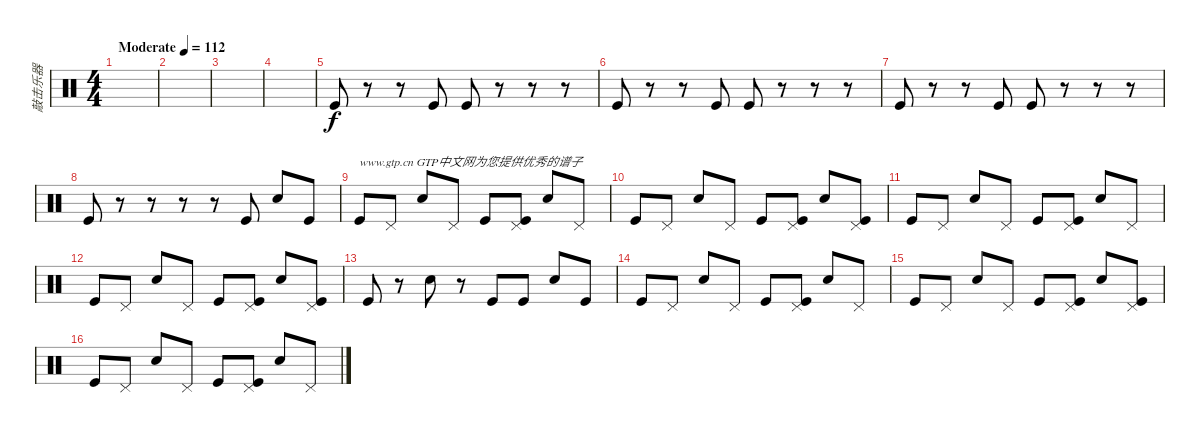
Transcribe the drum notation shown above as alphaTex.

\track ("敲击乐器" "敲击乐器") {instrument percussion}
\staff {score}
\articulation defaults
\ts (4 4)
\tempo (112 "Moderate")
\clef neutral
\ks c
|
|
|
|
"Kick (hit)".8 r.8 r.8 "Kick (hit)".8 "Kick (hit)".8 r.8 r.8 r.8 |
"Kick (hit)".8 r.8 r.8 "Kick (hit)".8 "Kick (hit)".8 r.8 r.8 r.8 |
"Kick (hit)".8 r.8 r.8 "Kick (hit)".8 "Kick (hit)".8 r.8 r.8 r.8 |
"Kick (hit)".8 r.8 r.8 r.8 r.8 "Kick (hit)".8 "Electric Snare (hit)".8 "Kick (hit)".8 |
"Kick (hit)".8{txt "www.gtp.cn GTP中文网为您提供优秀的谱子"} "Pedal Hi-Hat (hit)".8 "Electric Snare (hit)".8 "Pedal Hi-Hat (hit)".8 "Kick (hit)".8 ("Pedal Hi-Hat (hit)" "Kick (hit)").8 "Electric Snare (hit)".8 "Pedal Hi-Hat (hit)".8 |
"Kick (hit)".8 "Pedal Hi-Hat (hit)".8 "Electric Snare (hit)".8 "Pedal Hi-Hat (hit)".8 "Kick (hit)".8 ("Pedal Hi-Hat (hit)" "Kick (hit)").8 "Electric Snare (hit)".8 ("Pedal Hi-Hat (hit)" "Kick (hit)").8 |
"Kick (hit)".8 "Pedal Hi-Hat (hit)".8 "Electric Snare (hit)".8 "Pedal Hi-Hat (hit)".8 "Kick (hit)".8 ("Pedal Hi-Hat (hit)" "Kick (hit)").8 "Electric Snare (hit)".8 "Pedal Hi-Hat (hit)".8 |
"Kick (hit)".8 "Pedal Hi-Hat (hit)".8 "Electric Snare (hit)".8 "Pedal Hi-Hat (hit)".8 "Kick (hit)".8 ("Pedal Hi-Hat (hit)" "Kick (hit)").8 "Electric Snare (hit)".8 ("Pedal Hi-Hat (hit)" "Kick (hit)").8 |
"Kick (hit)".8 r.8 "Electric Snare (hit)".8 r.8 "Kick (hit)".8 "Kick (hit)".8 "Electric Snare (hit)".8 "Kick (hit)".8 |
"Kick (hit)".8 "Pedal Hi-Hat (hit)".8 "Electric Snare (hit)".8 "Pedal Hi-Hat (hit)".8 "Kick (hit)".8 ("Pedal Hi-Hat (hit)" "Kick (hit)").8 "Electric Snare (hit)".8 "Pedal Hi-Hat (hit)".8 |
"Kick (hit)".8 "Pedal Hi-Hat (hit)".8 "Electric Snare (hit)".8 "Pedal Hi-Hat (hit)".8 "Kick (hit)".8 ("Pedal Hi-Hat (hit)" "Kick (hit)").8 "Electric Snare (hit)".8 ("Pedal Hi-Hat (hit)" "Kick (hit)").8 |
"Kick (hit)".8 "Pedal Hi-Hat (hit)".8 "Electric Snare (hit)".8 "Pedal Hi-Hat (hit)".8 "Kick (hit)".8 ("Pedal Hi-Hat (hit)" "Kick (hit)").8 "Electric Snare (hit)".8 "Pedal Hi-Hat (hit)".8
